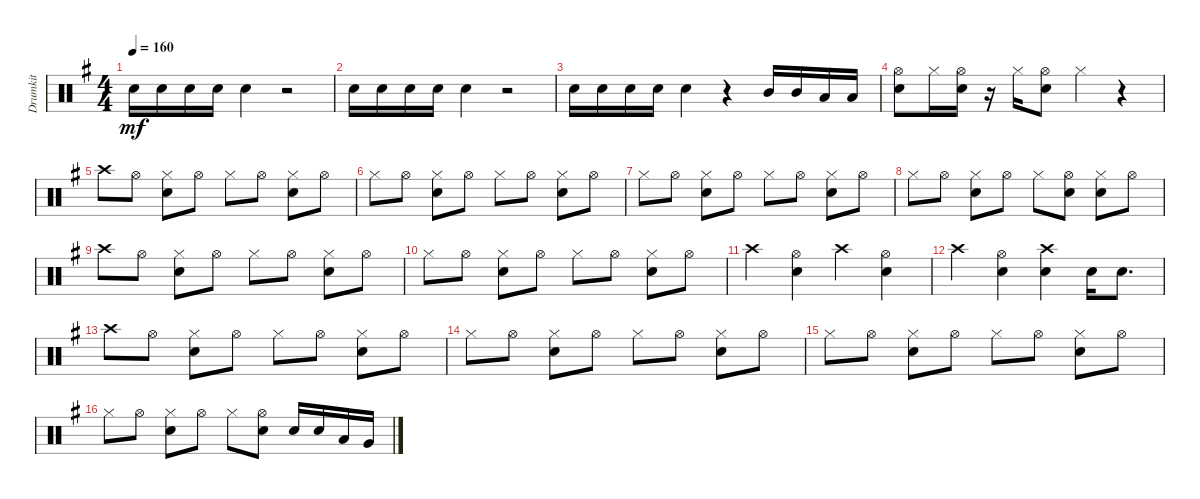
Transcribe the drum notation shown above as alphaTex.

\track ("Drumkit" "Drumkit") {instrument percussion}
\staff {score}
\articulation defaults
\ts (4 4)
\tempo 160
\clef neutral
\ks g "Snare (hit) 2".16{dy mf} "Snare (hit) 2".16 "Snare (hit) 2".16 "Snare (hit) 2".16 "Snare (hit) 2".4
r.2 |
"Snare (hit) 2".16 "Snare (hit) 2".16 "Snare (hit) 2".16 "Snare (hit) 2".16 "Snare (hit) 2".4 r.2 |
"Snare (hit) 2".16 "Snare (hit) 2".16 "Snare (hit) 2".16 "Snare (hit) 2".16 "Snare (hit) 2".4 r.4 "Mid Tom (hit)".16 "Mid Tom (hit)".16 "Low Tom (hit)".16 "Low Tom (hit)".16 |
("Snare (hit) 2" "Hi-Hat (open)").8 "Hi-Hat (closed)".16 ("Hi-Hat (open)" "Snare (hit) 2").16 r.16 "Hi-Hat (closed)".16 ("Hi-Hat (open)" "Snare (hit) 2").8 "Hi-Hat (closed)".4 r.4 |
"Crash high (hit)".8 "Hi-Hat (open)".8 ("Hi-Hat (closed)" "Snare (hit) 2").8 "Hi-Hat (open)".8 "Hi-Hat (closed)".8 "Hi-Hat (open)".8 ("Hi-Hat (closed)" "Snare (hit) 2").8 "Hi-Hat (open)".8 |
"Hi-Hat (closed)".8 "Hi-Hat (open)".8 ("Hi-Hat (closed)" "Snare (hit) 2").8 "Hi-Hat (open)".8 "Hi-Hat (closed)".8 "Hi-Hat (open)".8 ("Hi-Hat (closed)" "Snare (hit) 2").8 "Hi-Hat (open)".8 |
"Hi-Hat (closed)".8 "Hi-Hat (open)".8 ("Hi-Hat (closed)" "Snare (hit) 2").8 "Hi-Hat (open)".8 "Hi-Hat (closed)".8 "Hi-Hat (open)".8 ("Hi-Hat (closed)" "Snare (hit) 2").8 "Hi-Hat (open)".8 |
"Hi-Hat (closed)".8 "Hi-Hat (open)".8 ("Hi-Hat (closed)" "Snare (hit) 2").8 "Hi-Hat (open)".8 "Hi-Hat (closed)".8 ("Hi-Hat (open)" "Snare (hit) 2").8 ("Hi-Hat (closed)" "Snare (hit) 2").8 "Hi-Hat (open)".8 |
"Crash high (hit)".8 "Hi-Hat (open)".8 ("Hi-Hat (closed)" "Snare (hit) 2").8 "Hi-Hat (open)".8 "Hi-Hat (closed)".8 "Hi-Hat (open)".8 ("Hi-Hat (closed)" "Snare (hit) 2").8 "Hi-Hat (open)".8 |
"Hi-Hat (closed)".8 "Hi-Hat (open)".8 ("Hi-Hat (closed)" "Snare (hit) 2").8 "Hi-Hat (open)".8 "Hi-Hat (closed)".8 "Hi-Hat (open)".8 ("Hi-Hat (closed)" "Snare (hit) 2").8 "Hi-Hat (open)".8 |
"Crash high (hit)".4 ("Hi-Hat (open)" "Snare (hit) 2").4 "Crash high (hit)".4 ("Hi-Hat (open)" "Snare (hit) 2").4 |
"Crash high (hit)".4 ("Hi-Hat (open)" "Snare (hit) 2").4 ("Crash high (hit)" "Snare (hit) 2").4 "Snare (hit) 2".16 "Snare (hit) 2".8{d} |
"Crash high (hit)".8 "Hi-Hat (open)".8 ("Hi-Hat (closed)" "Snare (hit) 2").8 "Hi-Hat (open)".8 "Hi-Hat (closed)".8 "Hi-Hat (open)".8 ("Hi-Hat (closed)" "Snare (hit) 2").8 "Hi-Hat (open)".8 |
"Hi-Hat (closed)".8 "Hi-Hat (open)".8 ("Hi-Hat (closed)" "Snare (hit) 2").8 "Hi-Hat (open)".8 "Hi-Hat (closed)".8 "Hi-Hat (open)".8 ("Hi-Hat (closed)" "Snare (hit) 2").8 "Hi-Hat (open)".8 |
"Hi-Hat (closed)".8 "Hi-Hat (open)".8 ("Hi-Hat (closed)" "Snare (hit) 2").8 "Hi-Hat (open)".8 "Hi-Hat (closed)".8 "Hi-Hat (open)".8 ("Hi-Hat (closed)" "Snare (hit) 2").8 "Hi-Hat (open)".8 |
"Hi-Hat (closed)".8 "Hi-Hat (open)".8 ("Hi-Hat (closed)" "Snare (hit) 2").8 "Hi-Hat (open)".8 "Hi-Hat (closed)".8 ("Hi-Hat (open)" "Snare (hit) 2").8 "Snare (hit) 2".16 "Snare (hit) 2".16 "Low Tom (hit)".16 "Very Low Tom (hit)".16
